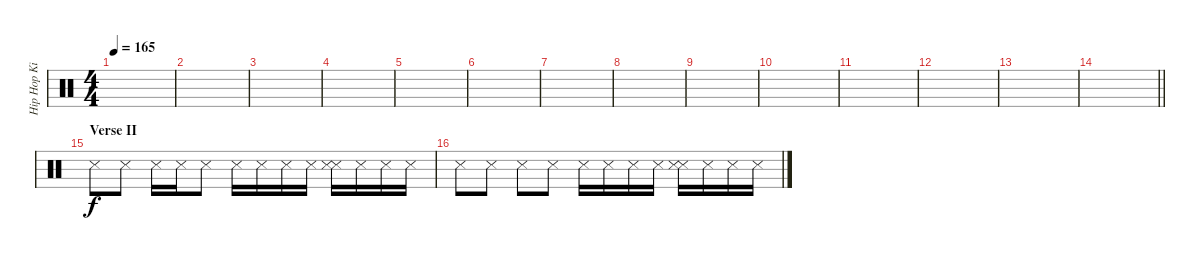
\track ("Hip Hop Kit" "Hip Hop Ki") {instrument percussion}
\staff {score}
\articulation defaults
\ts (4 4)
\tempo 165
\clef neutral
\ks c
|
|
|
|
|
|
|
|
|
|
|
|
|
\barLineRight lightlight
|
\section ("" "Verse II")
"Snare (side stick) 3".8 "Snare (side stick) 3".8 "Snare (side stick) 3".16 "Snare (side stick) 3".16 "Snare (side stick) 3".8 "Metronome (hit)".16 "Metronome (hit)".16 "Metronome (hit)".16 "Metronome (hit)".16 ("Metronome (hit)" "Snare (side stick) 3").16 "Metronome (hit)".16 "Metronome (hit)".16 "Metronome (hit)".16 |
"Snare (side stick) 3".8 "Snare (side stick) 3".8 "Snare (side stick) 3".8 "Snare (side stick) 3".8 "Metronome (hit)".16 "Metronome (hit)".16 "Metronome (hit)".16 "Metronome (hit)".16 ("Metronome (hit)" "Snare (side stick) 3").16 "Metronome (hit)".16 "Metronome (hit)".16 "Metronome (hit)".16
